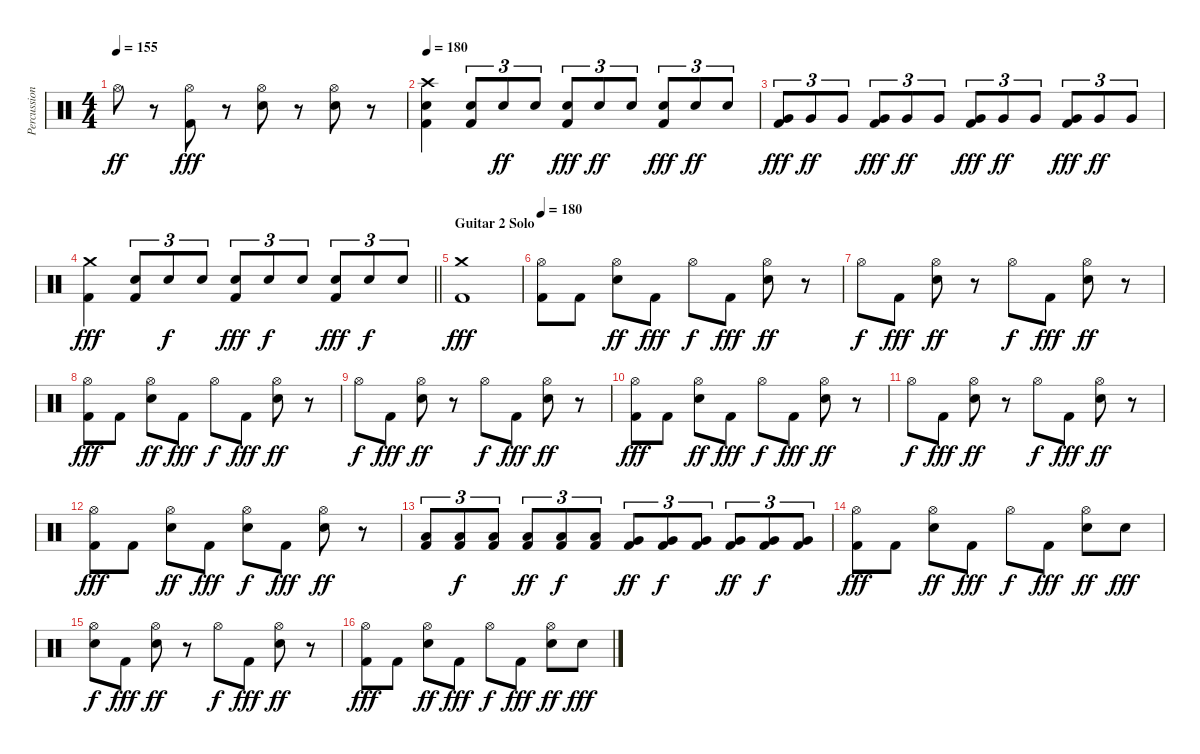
\track ("Percussion" "Percussion") {instrument percussion}
\staff {score}
\articulation defaults
\ts (4 4)
\tempo 155
\clef neutral
\ks c "Hi-Hat (open)".8{dy ff}
r.8 ("Hi-Hat (open)" "Kick (hit) 2").8{dy fff} r.8 ("Hi-Hat (open)" "Electric Snare (hit)").8 r.8 ("Hi-Hat (open)" "Electric Snare (hit)").8 r.8 |
\tempo 180
("Crash high (hit)" "Electric Snare (hit)" "Kick (hit) 2").4 ("Electric Snare (hit)" "Kick (hit) 2").8{tu (3 2)} "Electric Snare (hit)".8{tu (3 2) dy ff} "Electric Snare (hit)".8{tu (3 2)} ("Electric Snare (hit)" "Kick (hit) 2").8{tu (3 2) dy fff} "Electric Snare (hit)".8{tu (3 2) dy ff} "Electric Snare (hit)".8{tu (3 2)} ("Electric Snare (hit)" "Kick (hit) 2").8{tu (3 2) dy fff} "Electric Snare (hit)".8{tu (3 2) dy ff} "Electric Snare (hit)".8{tu (3 2)} |
("Very Low Tom (hit)" "Kick (hit) 2").8{tu (3 2) dy fff} "Very Low Tom (hit)".8{tu (3 2) dy ff} "Very Low Tom (hit)".8{tu (3 2)} ("Very Low Tom (hit)" "Kick (hit) 2").8{tu (3 2) dy fff} "Very Low Tom (hit)".8{tu (3 2) dy ff} "Very Low Tom (hit)".8{tu (3 2)} ("Very Low Tom (hit)" "Kick (hit) 2").8{tu (3 2) dy fff} "Very Low Tom (hit)".8{tu (3 2) dy ff} "Very Low Tom (hit)".8{tu (3 2)} ("Very Low Tom (hit)" "Kick (hit) 2").8{tu (3 2) dy fff} "Very Low Tom (hit)".8{tu (3 2) dy ff} "Very Low Tom (hit)".8{tu (3 2)} |
\barLineRight lightlight
("Crash medium (hit)" "Kick (hit) 2").4{dy fff} ("Electric Snare (hit)" "Kick (hit) 2").8{tu (3 2)} "Electric Snare (hit)".8{tu (3 2) dy f} "Electric Snare (hit)".8{tu (3 2)} ("Electric Snare (hit)" "Kick (hit) 2").8{tu (3 2) dy fff} "Electric Snare (hit)".8{tu (3 2) dy f} "Electric Snare (hit)".8{tu (3 2)} ("Electric Snare (hit)" "Kick (hit) 2").8{tu (3 2) dy fff} "Electric Snare (hit)".8{tu (3 2) dy f} "Electric Snare (hit)".8{tu (3 2)} |
\section ("" "Guitar 2 Solo")
("Crash medium (hit)" "Kick (hit) 2").1{dy fff} |
\tempo 180
("Hi-Hat (open)" "Kick (hit) 2").8 "Kick (hit) 2".8 ("Hi-Hat (open)" "Electric Snare (hit)").8{dy ff} "Kick (hit) 2".8{dy fff} "Hi-Hat (open)".8{dy f} "Kick (hit) 2".8{dy fff} ("Hi-Hat (open)" "Electric Snare (hit)").8{dy ff} r.8 |
"Hi-Hat (open)".8{dy f} "Kick (hit) 2".8{dy fff} ("Hi-Hat (open)" "Electric Snare (hit)").8{dy ff} r.8 "Hi-Hat (open)".8{dy f} "Kick (hit) 2".8{dy fff} ("Hi-Hat (open)" "Electric Snare (hit)").8{dy ff} r.8 |
("Hi-Hat (open)" "Kick (hit) 2").8{dy fff} "Kick (hit) 2".8 ("Hi-Hat (open)" "Electric Snare (hit)").8{dy ff} "Kick (hit) 2".8{dy fff} "Hi-Hat (open)".8{dy f} "Kick (hit) 2".8{dy fff} ("Hi-Hat (open)" "Electric Snare (hit)").8{dy ff} r.8 |
"Hi-Hat (open)".8{dy f} "Kick (hit) 2".8{dy fff} ("Hi-Hat (open)" "Electric Snare (hit)").8{dy ff} r.8 "Hi-Hat (open)".8{dy f} "Kick (hit) 2".8{dy fff} ("Hi-Hat (open)" "Electric Snare (hit)").8{dy ff} r.8 |
("Hi-Hat (open)" "Kick (hit) 2").8{dy fff} "Kick (hit) 2".8 ("Hi-Hat (open)" "Electric Snare (hit)").8{dy ff} "Kick (hit) 2".8{dy fff} "Hi-Hat (open)".8{dy f} "Kick (hit) 2".8{dy fff} ("Hi-Hat (open)" "Electric Snare (hit)").8{dy ff} r.8 |
"Hi-Hat (open)".8{dy f} "Kick (hit) 2".8{dy fff} ("Hi-Hat (open)" "Electric Snare (hit)").8{dy ff} r.8 "Hi-Hat (open)".8{dy f} "Kick (hit) 2".8{dy fff} ("Hi-Hat (open)" "Electric Snare (hit)").8{dy ff} r.8 |
("Hi-Hat (open)" "Kick (hit) 2").8{dy fff} "Kick (hit) 2".8 ("Hi-Hat (open)" "Electric Snare (hit)").8{dy ff} "Kick (hit) 2".8{dy fff} ("Hi-Hat (open)" "Snare (hit)").8{dy f} "Kick (hit) 2".8{dy fff} ("Hi-Hat (open)" "Electric Snare (hit)").8{dy ff} r.8 |
("Low Tom (hit)" "Kick (hit) 2").8{tu (3 2)} ("Low Tom (hit)" "Kick (hit) 2").8{tu (3 2) dy f} ("Low Tom (hit)" "Kick (hit) 2").8{tu (3 2)} ("Low Tom (hit)" "Kick (hit) 2").8{tu (3 2) dy ff} ("Low Tom (hit)" "Kick (hit) 2").8{tu (3 2) dy f} ("Low Tom (hit)" "Kick (hit) 2").8{tu (3 2)} ("Very Low Tom (hit)" "Kick (hit) 2").8{tu (3 2) dy ff} ("Very Low Tom (hit)" "Kick (hit) 2").8{tu (3 2) dy f} ("Very Low Tom (hit)" "Kick (hit) 2").8{tu (3 2)} ("Very Low Tom (hit)" "Kick (hit) 2").8{tu (3 2) dy ff} ("Very Low Tom (hit)" "Kick (hit) 2").8{tu (3 2) dy f} ("Very Low Tom (hit)" "Kick (hit) 2").8{tu (3 2)} |
("Hi-Hat (open)" "Kick (hit) 2").8{dy fff} "Kick (hit) 2".8 ("Hi-Hat (open)" "Electric Snare (hit)").8{dy ff} "Kick (hit) 2".8{dy fff} "Hi-Hat (open)".8{dy f} "Kick (hit) 2".8{dy fff} ("Hi-Hat (open)" "Electric Snare (hit)").8{dy ff} "Snare (hit)".8{dy fff} |
("Hi-Hat (open)" "Snare (hit)").8{dy f} "Kick (hit) 2".8{dy fff} ("Hi-Hat (open)" "Electric Snare (hit)").8{dy ff} r.8 "Hi-Hat (open)".8{dy f} "Kick (hit) 2".8{dy fff} ("Hi-Hat (open)" "Electric Snare (hit)").8{dy ff} r.8 |
("Hi-Hat (open)" "Kick (hit) 2").8{dy fff} "Kick (hit) 2".8 ("Hi-Hat (open)" "Electric Snare (hit)").8{dy ff} "Kick (hit) 2".8{dy fff} "Hi-Hat (open)".8{dy f} "Kick (hit) 2".8{dy fff} ("Hi-Hat (open)" "Electric Snare (hit)").8{dy ff} "Snare (hit)".8{dy fff}
